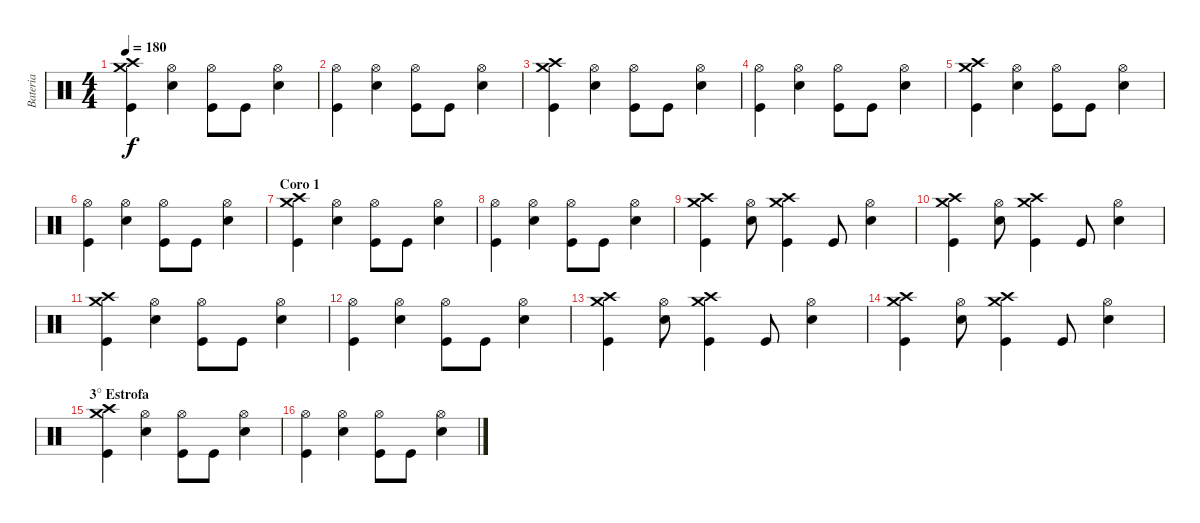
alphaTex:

\track ("Bateria" "Bateria") {instrument percussion}
\staff {score}
\articulation defaults
\ts (4 4)
\tempo 180
\clef neutral
\ks c
("Crash medium (hit)" "Crash high (hit)" "Kick (hit)").4{dy f} ("Hi-Hat (open)" "Snare (hit) 2").4 ("Hi-Hat (open)" "Kick (hit)").8 "Kick (hit)".8 ("Hi-Hat (open)" "Snare (hit) 2").4 |
("Hi-Hat (open)" "Kick (hit)").4 ("Hi-Hat (open)" "Snare (hit) 2").4 ("Hi-Hat (open)" "Kick (hit)").8 "Kick (hit)".8 ("Hi-Hat (open)" "Snare (hit) 2").4 |
("Crash medium (hit)" "Crash high (hit)" "Kick (hit)").4 ("Hi-Hat (open)" "Snare (hit) 2").4 ("Hi-Hat (open)" "Kick (hit)").8 "Kick (hit)".8 ("Hi-Hat (open)" "Snare (hit) 2").4 |
("Hi-Hat (open)" "Kick (hit)").4 ("Hi-Hat (open)" "Snare (hit) 2").4 ("Hi-Hat (open)" "Kick (hit)").8 "Kick (hit)".8 ("Hi-Hat (open)" "Snare (hit) 2").4 |
("Crash medium (hit)" "Crash high (hit)" "Kick (hit)").4 ("Hi-Hat (open)" "Snare (hit) 2").4 ("Hi-Hat (open)" "Kick (hit)").8 "Kick (hit)".8 ("Hi-Hat (open)" "Snare (hit) 2").4 |
("Hi-Hat (open)" "Kick (hit)").4 ("Hi-Hat (open)" "Snare (hit) 2").4 ("Hi-Hat (open)" "Kick (hit)").8 "Kick (hit)".8 ("Hi-Hat (open)" "Snare (hit) 2").4 |
\section ("" "Coro 1")
("Crash medium (hit)" "Crash high (hit)" "Kick (hit)").4 ("Hi-Hat (open)" "Snare (hit) 2").4 ("Hi-Hat (open)" "Kick (hit)").8 "Kick (hit)".8 ("Hi-Hat (open)" "Snare (hit) 2").4 |
("Hi-Hat (open)" "Kick (hit)").4 ("Hi-Hat (open)" "Snare (hit) 2").4 ("Hi-Hat (open)" "Kick (hit)").8 "Kick (hit)".8 ("Hi-Hat (open)" "Snare (hit) 2").4 |
("Crash medium (hit)" "Crash high (hit)" "Kick (hit)").4 ("Hi-Hat (open)" "Snare (hit) 2").8 ("Crash medium (hit)" "Crash high (hit)" "Kick (hit)").4 "Kick (hit)".8 ("Hi-Hat (open)" "Snare (hit) 2").4 |
("Crash medium (hit)" "Crash high (hit)" "Kick (hit)").4 ("Hi-Hat (open)" "Snare (hit) 2").8 ("Crash medium (hit)" "Crash high (hit)" "Kick (hit)").4 "Kick (hit)".8 ("Hi-Hat (open)" "Snare (hit) 2").4 |
("Crash medium (hit)" "Crash high (hit)" "Kick (hit)").4 ("Hi-Hat (open)" "Snare (hit) 2").4 ("Hi-Hat (open)" "Kick (hit)").8 "Kick (hit)".8 ("Hi-Hat (open)" "Snare (hit) 2").4 |
("Hi-Hat (open)" "Kick (hit)").4 ("Hi-Hat (open)" "Snare (hit) 2").4 ("Hi-Hat (open)" "Kick (hit)").8 "Kick (hit)".8 ("Hi-Hat (open)" "Snare (hit) 2").4 |
("Crash medium (hit)" "Crash high (hit)" "Kick (hit)").4 ("Hi-Hat (open)" "Snare (hit) 2").8 ("Crash medium (hit)" "Crash high (hit)" "Kick (hit)").4 "Kick (hit)".8 ("Hi-Hat (open)" "Snare (hit) 2").4 |
("Crash medium (hit)" "Crash high (hit)" "Kick (hit)").4 ("Hi-Hat (open)" "Snare (hit) 2").8 ("Crash medium (hit)" "Crash high (hit)" "Kick (hit)").4 "Kick (hit)".8 ("Hi-Hat (open)" "Snare (hit) 2").4 |
\section ("" "3° Estrofa")
("Crash medium (hit)" "Crash high (hit)" "Kick (hit)").4 ("Hi-Hat (open)" "Snare (hit) 2").4 ("Hi-Hat (open)" "Kick (hit)").8 "Kick (hit)".8 ("Hi-Hat (open)" "Snare (hit) 2").4 |
("Hi-Hat (open)" "Kick (hit)").4 ("Hi-Hat (open)" "Snare (hit) 2").4 ("Hi-Hat (open)" "Kick (hit)").8 "Kick (hit)".8 ("Hi-Hat (open)" "Snare (hit) 2").4
